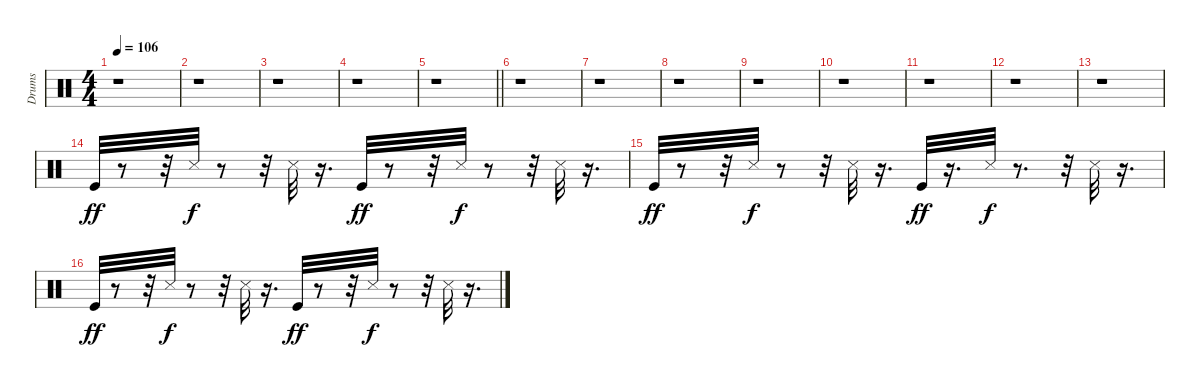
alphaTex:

\track ("Drums" "Drums") {instrument percussion}
\staff {score}
\articulation defaults
\ts (4 4)
\tempo 106
\clef neutral
\ks c
r.1{dy ff} |
r.1 |
r.1 |
r.1 |
\barLineRight lightlight
r.1 |
r.1 |
r.1 |
r.1 |
r.1 |
r.1 |
r.1 |
r.1 |
r.1 |
"Kick (hit)".32{volume 12 balance 8} r.8 r.32 "Snare (side stick) 3".32{dy f} r.8 r.32 "Snare (side stick) 3".32 r.16{d} "Kick (hit)".32{dy ff} r.8 r.32 "Snare (side stick) 3".32{dy f} r.8 r.32 "Snare (side stick) 3".32 r.16{d} |
"Kick (hit)".32{dy ff} r.8 r.32 "Snare (side stick) 3".32{dy f} r.8 r.32 "Snare (side stick) 3".32 r.16{d} "Kick (hit)".32{dy ff} r.16{d} "Snare (side stick) 3".32{dy f} r.8{d} r.32 "Snare (side stick) 3".32 r.16{d} |
"Kick (hit)".32{dy ff} r.8 r.32 "Snare (side stick) 3".32{dy f} r.8 r.32 "Snare (side stick) 3".32 r.16{d} "Kick (hit)".32{dy ff} r.8 r.32 "Snare (side stick) 3".32{dy f} r.8 r.32 "Snare (side stick) 3".32 r.16{d}
